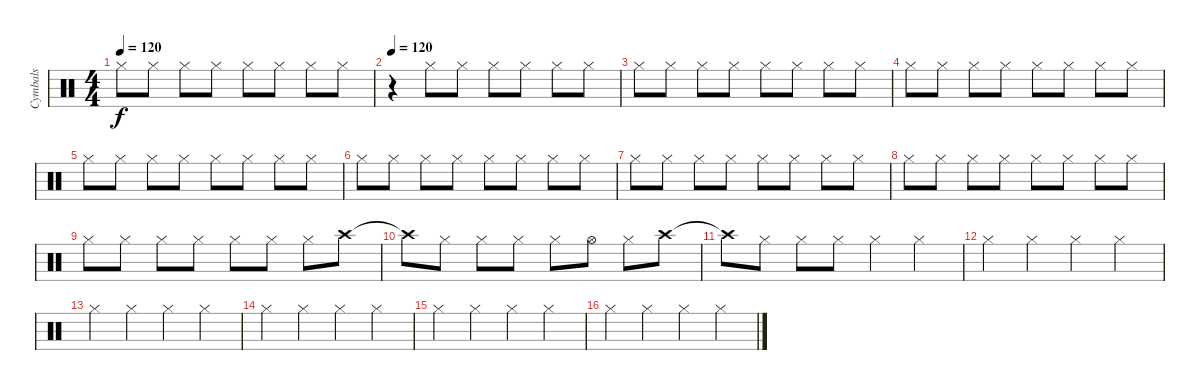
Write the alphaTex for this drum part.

\track ("Cymbals" "Cymbals") {instrument percussion}
\staff {score}
\articulation defaults
\ts (4 4)
\tempo 120
\clef neutral
\ks c "Hi-Hat (closed)".8{dy f} "Hi-Hat (closed)".8 "Hi-Hat (closed)".8 "Hi-Hat (closed)".8 "Hi-Hat (closed)".8 "Hi-Hat (closed)".8 "Hi-Hat (closed)".8 "Hi-Hat (closed)".8
|
\tempo 120
r.4 "Hi-Hat (closed)".8 "Hi-Hat (closed)".8 "Hi-Hat (closed)".8 "Hi-Hat (closed)".8 "Hi-Hat (closed)".8 "Hi-Hat (closed)".8 |
"Hi-Hat (closed)".8 "Hi-Hat (closed)".8 "Hi-Hat (closed)".8 "Hi-Hat (closed)".8 "Hi-Hat (closed)".8 "Hi-Hat (closed)".8 "Hi-Hat (closed)".8 "Hi-Hat (closed)".8 |
"Hi-Hat (closed)".8 "Hi-Hat (closed)".8 "Hi-Hat (closed)".8 "Hi-Hat (closed)".8 "Hi-Hat (closed)".8 "Hi-Hat (closed)".8 "Hi-Hat (closed)".8 "Hi-Hat (closed)".8 |
"Hi-Hat (closed)".8 "Hi-Hat (closed)".8 "Hi-Hat (closed)".8 "Hi-Hat (closed)".8 "Hi-Hat (closed)".8 "Hi-Hat (closed)".8 "Hi-Hat (closed)".8 "Hi-Hat (closed)".8 |
"Hi-Hat (closed)".8 "Hi-Hat (closed)".8 "Hi-Hat (closed)".8 "Hi-Hat (closed)".8 "Hi-Hat (closed)".8 "Hi-Hat (closed)".8 "Hi-Hat (closed)".8 "Hi-Hat (closed)".8 |
"Hi-Hat (closed)".8 "Hi-Hat (closed)".8 "Hi-Hat (closed)".8 "Hi-Hat (closed)".8 "Hi-Hat (closed)".8 "Hi-Hat (closed)".8 "Hi-Hat (closed)".8 "Hi-Hat (closed)".8 |
"Hi-Hat (closed)".8 "Hi-Hat (closed)".8 "Hi-Hat (closed)".8 "Hi-Hat (closed)".8 "Hi-Hat (closed)".8 "Hi-Hat (closed)".8 "Hi-Hat (closed)".8 "Hi-Hat (closed)".8 |
"Hi-Hat (closed)".8 "Hi-Hat (closed)".8 "Hi-Hat (closed)".8 "Hi-Hat (closed)".8 "Hi-Hat (closed)".8 "Hi-Hat (closed)".8 "Hi-Hat (closed)".8 "Crash high (hit)".8 |
"Crash high (hit)"{t}.8 "Hi-Hat (closed)".8 "Hi-Hat (closed)".8 "Hi-Hat (closed)".8 "Hi-Hat (closed)".8 "Hi-Hat (open)".8 "Hi-Hat (closed)".8 "Crash high (hit)".8 |
"Crash high (hit)"{t}.8 "Hi-Hat (closed)".8 "Hi-Hat (closed)".8 "Hi-Hat (closed)".8 "Hi-Hat (closed)".4 "Hi-Hat (closed)".4 |
"Hi-Hat (closed)".4 "Hi-Hat (closed)".4 "Hi-Hat (closed)".4 "Hi-Hat (closed)".4 |
"Hi-Hat (closed)".4 "Hi-Hat (closed)".4 "Hi-Hat (closed)".4 "Hi-Hat (closed)".4 |
"Hi-Hat (closed)".4 "Hi-Hat (closed)".4 "Hi-Hat (closed)".4 "Hi-Hat (closed)".4 |
"Hi-Hat (closed)".4 "Hi-Hat (closed)".4 "Hi-Hat (closed)".4 "Hi-Hat (closed)".4 |
"Hi-Hat (closed)".4 "Hi-Hat (closed)".4 "Hi-Hat (closed)".4 "Hi-Hat (closed)".4
